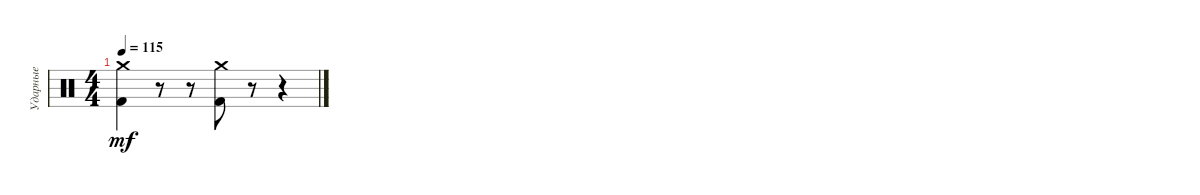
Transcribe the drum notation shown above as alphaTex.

\track ("Ударные" "Ударные") {instrument percussion}
\staff {score}
\articulation defaults
\ts (4 4)
\tempo 115
\clef neutral
\ks c
("Crash medium (hit)" "Kick (hit) 2").4{dy mf} r.8 r.8 ("Crash medium (hit)" "Kick (hit) 2").8 r.8 r.4
